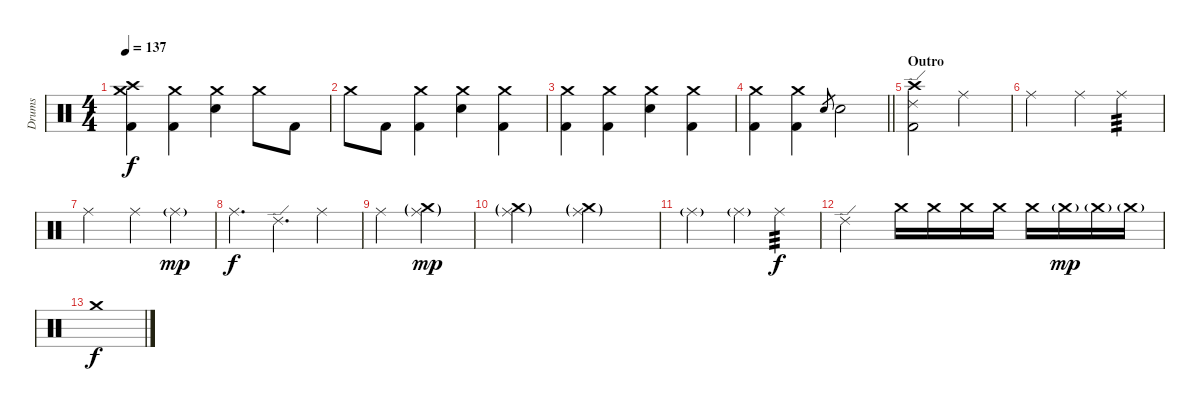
\track ("Drums" "Drums") {instrument percussion}
\staff {score}
\articulation defaults
\ts (4 4)
\tempo 137
\clef neutral
\ks c
("Crash high (hit)" "Crash medium (hit)" "Kick (hit) 2").4{dy f} ("Crash medium (hit)" "Kick (hit) 2").4 ("Crash medium (hit)" "Electric Snare (hit)").4 "Crash medium (hit)".8 "Kick (hit) 2".8 |
"Crash medium (hit)".8 "Kick (hit) 2".8 ("Crash medium (hit)" "Kick (hit) 2").4 ("Crash medium (hit)" "Electric Snare (hit)").4 ("Crash medium (hit)" "Kick (hit) 2").4 |
("Crash medium (hit)" "Kick (hit) 2").4 ("Crash medium (hit)" "Kick (hit) 2").4 ("Crash medium (hit)" "Electric Snare (hit)").4 ("Crash medium (hit)" "Kick (hit) 2").4 |
\barLineRight lightlight
("Crash medium (hit)" "Kick (hit) 2").4 ("Crash medium (hit)" "Kick (hit) 2").4 "Electric Snare (hit)".8{gr} "Electric Snare (hit)".2 |
\section ("" "Outro")
("Crash high (hit)" "Ride (edge) 2" "Kick (hit) 2").2 "Ride (middle)".2 |
"Ride (middle)".2 "Ride (middle)".4 "Ride (middle)".4{tp 3} |
"Ride (middle)".2 "Ride (middle)".4 "Ride (middle)"{g}.4{dy mp} |
"Ride (middle)".4{d dy f} "Ride (edge) 2".4{d} "Ride (middle)".4 |
"Ride (middle)".2 ("Ride (middle)"{g} "Crash medium (hit)"{g}).2{dy mp} |
("Ride (middle)"{g} "Crash medium (hit)"{g}).2 ("Ride (middle)"{g} "Crash medium (hit)"{g}).2 |
"Ride (middle)"{g}.2 "Ride (middle)"{g}.4 "Ride (middle)".4{tp 3 dy f} |
"Ride (edge) 2".2 "Crash medium (hit)".16{volume 2} "Crash medium (hit)".16 "Crash medium (hit)".16{volume 4} "Crash medium (hit)".16 "Crash medium (hit)".16{volume 6} "Crash medium (hit)"{g}.16{dy mp} "Crash medium (hit)"{g}.16{volume 8} "Crash medium (hit)"{g}.16 |
"Crash medium (hit)".1{dy f volume 10}
